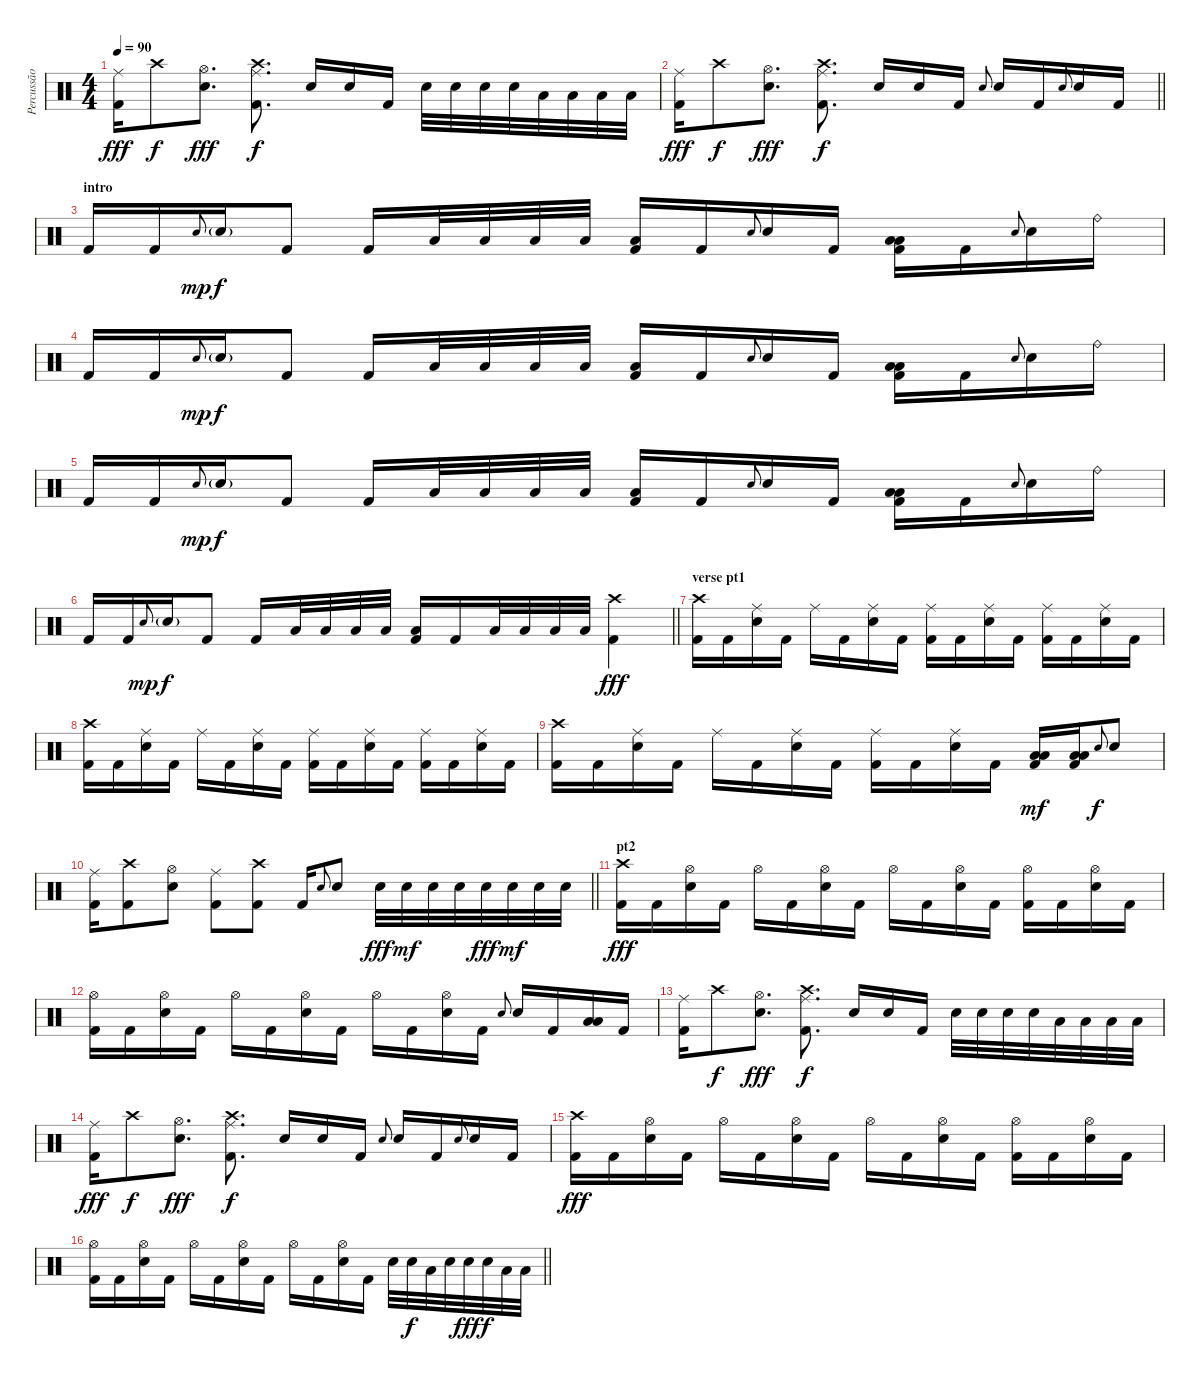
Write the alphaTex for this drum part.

\track ("Percussão" "Percussão") {instrument percussion}
\staff {score}
\articulation defaults
\ts (4 4)
\tempo 90
\clef neutral
\ks c
("Ride (middle)" "Kick (hit) 2").16{dy fff} "Crash high (hit)".8{dy f} ("Hi-Hat (open)" "Electric Snare (hit)").8{d dy fff} ("Crash high (hit)" "Ride (middle)" "Kick (hit) 2").8{d dy f} "Electric Snare (hit)".16 "Electric Snare (hit)".16 "Kick (hit) 2".16 "Electric Snare (hit)".32 "Electric Snare (hit)".32 "Electric Snare (hit)".32 "Electric Snare (hit)".32 "Low Floor Tom (hit)".32 "Low Floor Tom (hit)".32 "Low Floor Tom (hit)".32 "Low Floor Tom (hit)".32 |
\barLineRight lightlight
("Ride (middle)" "Kick (hit) 2").16{dy fff} "Crash high (hit)".8{dy f} ("Hi-Hat (open)" "Electric Snare (hit)").8{d dy fff} ("Crash high (hit)" "Ride (middle)" "Kick (hit) 2").8{d dy f} "Electric Snare (hit)".16 "Electric Snare (hit)".16 "Kick (hit) 2".16 "Electric Snare (hit)".8{gr onbeat} "Electric Snare (hit)".16 "Kick (hit) 2".16 "Electric Snare (hit)".8{gr onbeat} "Electric Snare (hit)".16 "Kick (hit) 2".16 |
\section ("" "intro")
"Kick (hit) 2".16 "Kick (hit) 2".16 "Electric Snare (hit)".8{gr onbeat dy mp} "Electric Snare (hit)"{g}.16{dy f} "Kick (hit) 2".8 "Kick (hit) 2".16 "Low Tom (hit)".32 "Low Tom (hit)".32 "Low Floor Tom (hit)".32 "Low Floor Tom (hit)".32 ("Low Floor Tom (hit)" "Kick (hit) 2").16 "Kick (hit) 2".16 "Electric Snare (hit)".8{gr onbeat} "Electric Snare (hit)".16 "Kick (hit) 2".16 ("Low Tom (hit)" "Low Floor Tom (hit)" "Kick (hit) 2").16 "Kick (hit) 2".16 "Electric Snare (hit)".8{gr onbeat} "Electric Snare (hit)".16 "Ride (bell)".16 |
"Kick (hit) 2".16 "Kick (hit) 2".16 "Electric Snare (hit)".8{gr onbeat dy mp} "Electric Snare (hit)"{g}.16{dy f} "Kick (hit) 2".8 "Kick (hit) 2".16 "Low Tom (hit)".32 "Low Tom (hit)".32 "Low Floor Tom (hit)".32 "Low Floor Tom (hit)".32 ("Low Floor Tom (hit)" "Kick (hit) 2").16 "Kick (hit) 2".16 "Electric Snare (hit)".8{gr onbeat} "Electric Snare (hit)".16 "Kick (hit) 2".16 ("Low Tom (hit)" "Low Floor Tom (hit)" "Kick (hit) 2").16 "Kick (hit) 2".16 "Electric Snare (hit)".8{gr onbeat} "Electric Snare (hit)".16 "Ride (bell)".16 |
"Kick (hit) 2".16 "Kick (hit) 2".16 "Electric Snare (hit)".8{gr onbeat dy mp} "Electric Snare (hit)"{g}.16{dy f} "Kick (hit) 2".8 "Kick (hit) 2".16 "Low Tom (hit)".32 "Low Tom (hit)".32 "Low Floor Tom (hit)".32 "Low Floor Tom (hit)".32 ("Low Floor Tom (hit)" "Kick (hit) 2").16 "Kick (hit) 2".16 "Electric Snare (hit)".8{gr onbeat} "Electric Snare (hit)".16 "Kick (hit) 2".16 ("Low Tom (hit)" "Low Floor Tom (hit)" "Kick (hit) 2").16 "Kick (hit) 2".16 "Electric Snare (hit)".8{gr onbeat} "Electric Snare (hit)".16 "Ride (bell)".16 |
\barLineRight lightlight "Kick (hit) 2".16 "Kick (hit) 2".16 "Electric Snare (hit)".8{gr onbeat dy mp} "Electric Snare (hit)"{g}.16{dy f} "Kick (hit) 2".8 "Kick (hit) 2".16 "Low Tom (hit)".32 "Low Tom (hit)".32 "Low Floor Tom (hit)".32 "Low Floor Tom (hit)".32
("Low Floor Tom (hit)" "Kick (hit) 2").16 "Kick (hit) 2".16 "Low Tom (hit)".32 "Low Tom (hit)".32 "Low Floor Tom (hit)".32 "Low Floor Tom (hit)".32 ("Crash high (hit)" "Kick (hit) 2").4{dy fff} |
\section ("" "verse pt1")
("Crash high (hit)" "Kick (hit) 2").16 "Kick (hit) 2".16 ("Ride (middle)" "Electric Snare (hit)").16 "Kick (hit) 2".16 "Ride (middle)".16 "Kick (hit) 2".16 ("Ride (middle)" "Electric Snare (hit)").16 "Kick (hit) 2".16 ("Ride (middle)" "Kick (hit) 2").16 "Kick (hit) 2".16 ("Ride (middle)" "Electric Snare (hit)").16 "Kick (hit) 2".16 ("Ride (middle)" "Kick (hit) 2").16 "Kick (hit) 2".16 ("Ride (middle)" "Electric Snare (hit)").16 "Kick (hit) 2".16 |
("Crash high (hit)" "Kick (hit) 2").16 "Kick (hit) 2".16 ("Ride (middle)" "Electric Snare (hit)").16 "Kick (hit) 2".16 "Ride (middle)".16 "Kick (hit) 2".16 ("Ride (middle)" "Electric Snare (hit)").16 "Kick (hit) 2".16 ("Ride (middle)" "Kick (hit) 2").16 "Kick (hit) 2".16 ("Ride (middle)" "Electric Snare (hit)").16 "Kick (hit) 2".16 ("Ride (middle)" "Kick (hit) 2").16 "Kick (hit) 2".16 ("Ride (middle)" "Electric Snare (hit)").16 "Kick (hit) 2".16 |
("Crash high (hit)" "Kick (hit) 2").16 "Kick (hit) 2".16 ("Ride (middle)" "Electric Snare (hit)").16 "Kick (hit) 2".16 "Ride (middle)".16 "Kick (hit) 2".16 ("Ride (middle)" "Electric Snare (hit)").16 "Kick (hit) 2".16 ("Ride (middle)" "Kick (hit) 2").16 "Kick (hit) 2".16 ("Ride (middle)" "Electric Snare (hit)").16 "Kick (hit) 2".16 ("Low Tom (hit)" "Low Floor Tom (hit)" "Kick (hit) 2").16{dy mf} ("Low Tom (hit)" "Low Floor Tom (hit)" "Kick (hit) 2").16 "Electric Snare (hit)".8{gr onbeat dy f} "Electric Snare (hit)".8 |
\barLineRight lightlight
("Ride (middle)" "Kick (hit) 2").16 ("Crash high (hit)" "Kick (hit) 2").8 ("Hi-Hat (open)" "Electric Snare (hit)").8 ("Ride (middle)" "Kick (hit) 2").8 ("Crash high (hit)" "Kick (hit) 2").8 "Kick (hit) 2".16 "Electric Snare (hit)".8{gr onbeat} "Electric Snare (hit)".8 "Electric Snare (hit)".32{dy fff} "Electric Snare (hit)".32{dy mf} "Electric Snare (hit)".32 "Electric Snare (hit)".32 "Electric Snare (hit)".32{dy fff} "Electric Snare (hit)".32{dy mf} "Electric Snare (hit)".32 "Electric Snare (hit)".32 |
\section ("" "pt2")
("Crash high (hit)" "Kick (hit) 2").16{dy fff} "Kick (hit) 2".16 ("Hi-Hat (open)" "Electric Snare (hit)").16 "Kick (hit) 2".16 "Hi-Hat (open)".16 "Kick (hit) 2".16 ("Hi-Hat (open)" "Electric Snare (hit)").16 "Kick (hit) 2".16 "Hi-Hat (open)".16 "Kick (hit) 2".16 ("Hi-Hat (open)" "Electric Snare (hit)").16 "Kick (hit) 2".16 ("Hi-Hat (open)" "Kick (hit) 2").16 "Kick (hit) 2".16 ("Hi-Hat (open)" "Electric Snare (hit)").16 "Kick (hit) 2".16 |
("Hi-Hat (open)" "Kick (hit) 2").16 "Kick (hit) 2".16 ("Hi-Hat (open)" "Electric Snare (hit)").16 "Kick (hit) 2".16 "Hi-Hat (open)".16 "Kick (hit) 2".16 ("Hi-Hat (open)" "Electric Snare (hit)").16 "Kick (hit) 2".16 "Hi-Hat (open)".16 "Kick (hit) 2".16 ("Hi-Hat (open)" "Electric Snare (hit)").16 "Kick (hit) 2".16 "Electric Snare (hit)".8{gr onbeat} "Electric Snare (hit)".16 "Kick (hit) 2".16 ("Low Tom (hit)" "Low Floor Tom (hit)").16 "Kick (hit) 2".16 |
("Ride (middle)" "Kick (hit) 2").16 "Crash high (hit)".8{dy f} ("Hi-Hat (open)" "Electric Snare (hit)").8{d dy fff} ("Crash high (hit)" "Ride (middle)" "Kick (hit) 2").8{d dy f} "Electric Snare (hit)".16 "Electric Snare (hit)".16 "Kick (hit) 2".16 "Electric Snare (hit)".32 "Electric Snare (hit)".32 "Electric Snare (hit)".32 "Electric Snare (hit)".32 "Low Floor Tom (hit)".32 "Low Floor Tom (hit)".32 "Low Floor Tom (hit)".32 "Low Floor Tom (hit)".32 |
("Ride (middle)" "Kick (hit) 2").16{dy fff} "Crash high (hit)".8{dy f} ("Hi-Hat (open)" "Electric Snare (hit)").8{d dy fff} ("Crash high (hit)" "Ride (middle)" "Kick (hit) 2").8{d dy f} "Electric Snare (hit)".16 "Electric Snare (hit)".16 "Kick (hit) 2".16 "Electric Snare (hit)".8{gr onbeat} "Electric Snare (hit)".16 "Kick (hit) 2".16 "Electric Snare (hit)".8{gr onbeat} "Electric Snare (hit)".16 "Kick (hit) 2".16 |
("Crash high (hit)" "Kick (hit) 2").16{dy fff} "Kick (hit) 2".16 ("Hi-Hat (open)" "Electric Snare (hit)").16 "Kick (hit) 2".16 "Hi-Hat (open)".16 "Kick (hit) 2".16 ("Hi-Hat (open)" "Electric Snare (hit)").16 "Kick (hit) 2".16 "Hi-Hat (open)".16 "Kick (hit) 2".16 ("Hi-Hat (open)" "Electric Snare (hit)").16 "Kick (hit) 2".16 ("Hi-Hat (open)" "Kick (hit) 2").16 "Kick (hit) 2".16 ("Hi-Hat (open)" "Electric Snare (hit)").16 "Kick (hit) 2".16 |
\barLineRight lightlight
("Hi-Hat (open)" "Kick (hit) 2").16 "Kick (hit) 2".16 ("Hi-Hat (open)" "Electric Snare (hit)").16 "Kick (hit) 2".16 "Hi-Hat (open)".16 "Kick (hit) 2".16 ("Hi-Hat (open)" "Electric Snare (hit)").16 "Kick (hit) 2".16 "Hi-Hat (open)".16 "Kick (hit) 2".16 ("Hi-Hat (open)" "Electric Snare (hit)").16 "Kick (hit) 2".16 "Electric Snare (hit)".32 "Electric Snare (hit)".32{dy f} "Low Tom (hit)".32 "Electric Snare (hit)".32 "Electric Snare (hit)".32{dy fff} "Electric Snare (hit)".32{dy f} "Low Floor Tom (hit)".32 "Low Floor Tom (hit)".32
